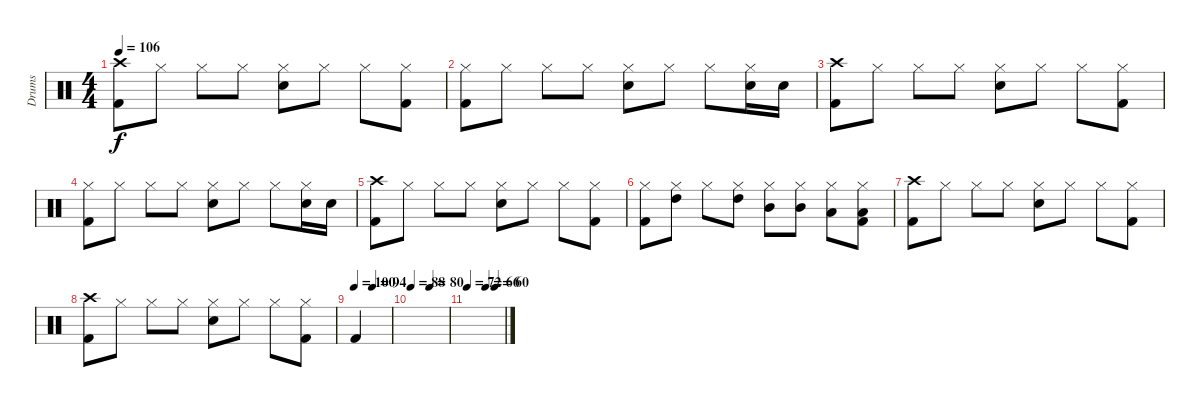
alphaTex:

\track ("Drums" "Drums") {instrument percussion}
\staff {score}
\articulation defaults
\ts (4 4)
\tempo 106
\clef neutral
\ks c
("Crash high (hit)" "Kick (hit) 2").8{dy f} "Hi-Hat (closed)".8 "Hi-Hat (closed)".8 "Hi-Hat (closed)".8 ("Hi-Hat (closed)" "Snare (hit) 2").8 "Hi-Hat (closed)".8 "Hi-Hat (closed)".8 ("Hi-Hat (closed)" "Kick (hit) 2").8 |
("Hi-Hat (closed)" "Kick (hit) 2").8 "Hi-Hat (closed)".8 "Hi-Hat (closed)".8 "Hi-Hat (closed)".8 ("Hi-Hat (closed)" "Snare (hit) 2").8 "Hi-Hat (closed)".8 "Hi-Hat (closed)".8 ("Hi-Hat (closed)" "Snare (hit) 2").16 "Snare (hit) 2".16 |
("Crash high (hit)" "Kick (hit) 2").8 "Hi-Hat (closed)".8 "Hi-Hat (closed)".8 "Hi-Hat (closed)".8 ("Hi-Hat (closed)" "Snare (hit) 2").8 "Hi-Hat (closed)".8 "Hi-Hat (closed)".8 ("Hi-Hat (closed)" "Kick (hit) 2").8 |
("Hi-Hat (closed)" "Kick (hit) 2").8 "Hi-Hat (closed)".8 "Hi-Hat (closed)".8 "Hi-Hat (closed)".8 ("Hi-Hat (closed)" "Snare (hit) 2").8 "Hi-Hat (closed)".8 "Hi-Hat (closed)".8 ("Hi-Hat (closed)" "Snare (hit) 2").16 "Snare (hit) 2".16 |
("Crash high (hit)" "Kick (hit) 2").8 "Hi-Hat (closed)".8 "Hi-Hat (closed)".8 "Hi-Hat (closed)".8 ("Hi-Hat (closed)" "Snare (hit) 2").8 "Hi-Hat (closed)".8 "Hi-Hat (closed)".8 ("Hi-Hat (closed)" "Kick (hit) 2").8 |
("Hi-Hat (closed)" "Kick (hit) 2").8 ("Hi-Hat (closed)" "High Tom (hit)").8 "Hi-Hat (closed)".8 ("Hi-Hat (closed)" "High Tom (hit)").8 ("Hi-Hat (closed)" "Mid Tom (hit)").8 ("Hi-Hat (closed)" "Mid Tom (hit)").8 ("Hi-Hat (closed)" "Low Tom (hit)").8 ("Hi-Hat (closed)" "Low Tom (hit)" "Kick (hit) 2").8 |
("Crash high (hit)" "Kick (hit) 2").8 "Hi-Hat (closed)".8 "Hi-Hat (closed)".8 "Hi-Hat (closed)".8 ("Hi-Hat (closed)" "Snare (hit) 2").8 "Hi-Hat (closed)".8 "Hi-Hat (closed)".8 ("Hi-Hat (closed)" "Kick (hit) 2").8 |
("Crash high (hit)" "Kick (hit) 2").8 "Hi-Hat (closed)".8 "Hi-Hat (closed)".8 "Hi-Hat (closed)".8 ("Hi-Hat (closed)" "Snare (hit) 2").8 "Hi-Hat (closed)".8 "Hi-Hat (closed)".8 ("Hi-Hat (closed)" "Kick (hit) 2").8 |
\tempo 100
\tempo (94 0.5)
"Kick (hit) 2".4 |
\tempo 88
\tempo (80 0.5)
|
\tempo 72
\tempo (66 0.5)
\tempo (60 0.75)
